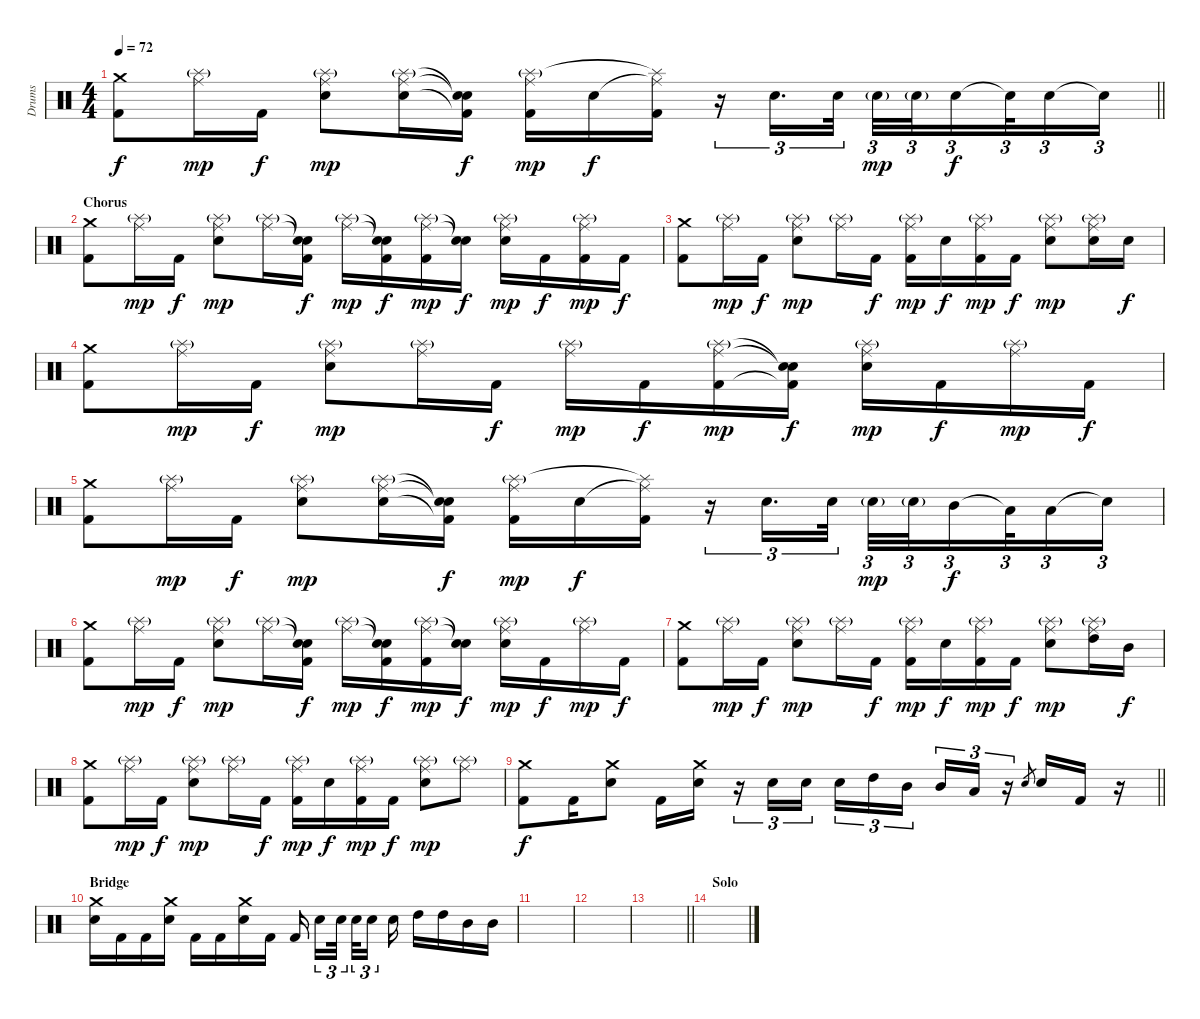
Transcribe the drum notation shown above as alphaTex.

\track ("Drums" "Drums") {instrument percussion}
\staff {score}
\articulation defaults
\ts (4 4)
\tempo 72
\clef neutral
\barLineRight lightlight
\ks c
("Crash medium (hit)" "Kick (hit) 2").8{dy f} ("Ride (middle)" "Splash (hit)"{g}).16{dy mp} "Kick (hit) 2".16{dy f} ("Ride (middle)" "Splash (hit)"{g} "Electric Snare (hit)").8{dy mp} ("Ride (middle)" "Splash (hit)"{g} "Electric Snare (hit)").16 ("Snare (hit)"{t} "Snare (hit)"{t} "Kick (hit) 2"{t}).16{dy f} ("Ride (middle)" "Splash (hit)"{g} "Kick (hit) 2").16{dy mp} "Electric Snare (hit)".16{dy f} ("Ride (middle)"{t} "Splash (hit)"{t} "Kick (hit) 2").16 r.16{tu (3 2)} "Electric Snare (hit)".16{d tu (3 2)} "Electric Snare (hit)".32{tu (3 2)} "Electric Snare (hit)"{g}.32{tu (3 2) dy mp} "Electric Snare (hit)"{g}.32{tu (3 2) beam splitsecondary} "Electric Snare (hit)".16{tu (3 2) dy f} "Snare (hit)"{t}.32{tu (3 2) beam splitsecondary} "Electric Snare (hit)".16{tu (3 2)} "Electric Snare (hit)"{t}.16{tu (3 2)} |
\section ("" "Chorus")
("Crash medium (hit)" "Kick (hit) 2").8 ("Ride (middle)" "Splash (hit)"{g}).16{dy mp} "Kick (hit) 2".16{dy f} ("Ride (middle)" "Splash (hit)"{g} "Electric Snare (hit)").8{dy mp} ("Ride (middle)" "Splash (hit)"{g}).16 ("Snare (hit)"{t} "Snare (hit)"{t} "Kick (hit) 2").16{dy f} ("Ride (middle)" "Splash (hit)"{g}).16{dy mp} ("Snare (hit)"{t} "Snare (hit)"{t} "Kick (hit) 2").16{dy f} ("Ride (middle)" "Splash (hit)"{g} "Kick (hit) 2").16{dy mp} ("Snare (hit)"{t} "Snare (hit)"{t}).16{dy f} ("Ride (middle)" "Splash (hit)"{g} "Electric Snare (hit)").16{dy mp} "Kick (hit) 2".16{dy f} ("Ride (middle)" "Splash (hit)"{g} "Kick (hit) 2").16{dy mp} "Kick (hit) 2".16{dy f} |
("Crash medium (hit)" "Kick (hit) 2").8 ("Ride (middle)" "Splash (hit)"{g}).16{dy mp} "Kick (hit) 2".16{dy f} ("Ride (middle)" "Splash (hit)"{g} "Electric Snare (hit)").8{dy mp} ("Ride (middle)" "Splash (hit)"{g}).16 "Kick (hit) 2".16{dy f} ("Ride (middle)" "Splash (hit)"{g} "Kick (hit) 2").16{dy mp} "Electric Snare (hit)".16{dy f} ("Ride (middle)" "Splash (hit)"{g} "Kick (hit) 2").16{dy mp} "Kick (hit) 2".16{dy f} ("Ride (middle)" "Splash (hit)"{g} "Electric Snare (hit)").8{dy mp} ("Ride (middle)" "Splash (hit)"{g} "Electric Snare (hit)").16 "Electric Snare (hit)".16{dy f} |
("Crash medium (hit)" "Kick (hit) 2").8 ("Ride (middle)" "Splash (hit)"{g}).16{dy mp} "Kick (hit) 2".16{dy f} ("Ride (middle)" "Splash (hit)"{g} "Electric Snare (hit)").8{dy mp} ("Ride (middle)" "Splash (hit)"{g}).16 "Kick (hit) 2".16{dy f} ("Ride (middle)" "Splash (hit)"{g}).16{dy mp} "Kick (hit) 2".16{dy f} ("Ride (middle)" "Splash (hit)"{g} "Kick (hit) 2").16{dy mp} ("Snare (hit)"{t} "Snare (hit)"{t} "Kick (hit) 2"{t}).16{dy f} ("Ride (middle)" "Splash (hit)"{g} "Electric Snare (hit)").16{dy mp} "Kick (hit) 2".16{dy f} ("Ride (middle)" "Splash (hit)"{g}).16{dy mp} "Kick (hit) 2".16{dy f} |
("Crash medium (hit)" "Kick (hit) 2").8 ("Ride (middle)" "Splash (hit)"{g}).16{dy mp} "Kick (hit) 2".16{dy f} ("Ride (middle)" "Splash (hit)"{g} "Electric Snare (hit)").8{dy mp} ("Ride (middle)" "Splash (hit)"{g} "Electric Snare (hit)").16 ("Snare (hit)"{t} "Snare (hit)"{t} "Kick (hit) 2"{t}).16{dy f} ("Ride (middle)" "Splash (hit)"{g} "Kick (hit) 2").16{dy mp} "Electric Snare (hit)".16{dy f} ("Ride (middle)"{t} "Splash (hit)"{t} "Kick (hit) 2").16 r.16{tu (3 2)} "Electric Snare (hit)".16{d tu (3 2)} "Electric Snare (hit)".32{tu (3 2)} "Electric Snare (hit)"{g}.32{tu (3 2) dy mp} "Electric Snare (hit)"{g}.32{tu (3 2) beam splitsecondary} "Mid Tom (hit)".16{tu (3 2) dy f} "Low Tom (hit)"{t}.32{tu (3 2) beam splitsecondary} "Low Tom (hit)".16{tu (3 2)} "Electric Snare (hit)"{t}.16{tu (3 2)} |
("Crash medium (hit)" "Kick (hit) 2").8 ("Ride (middle)" "Splash (hit)"{g}).16{dy mp} "Kick (hit) 2".16{dy f} ("Ride (middle)" "Splash (hit)"{g} "Electric Snare (hit)").8{dy mp} ("Ride (middle)" "Splash (hit)"{g}).16 ("Snare (hit)"{t} "Snare (hit)"{t} "Kick (hit) 2").16{dy f} ("Ride (middle)" "Splash (hit)"{g}).16{dy mp} ("Snare (hit)"{t} "Snare (hit)"{t} "Kick (hit) 2").16{dy f} ("Ride (middle)" "Splash (hit)"{g} "Kick (hit) 2").16{dy mp} ("Snare (hit)"{t} "Snare (hit)"{t}).16{dy f} ("Ride (middle)" "Splash (hit)"{g} "Electric Snare (hit)").16{dy mp} "Kick (hit) 2".16{dy f} ("Ride (middle)" "Splash (hit)"{g}).16{dy mp} "Kick (hit) 2".16{dy f} |
("Crash medium (hit)" "Kick (hit) 2").8 ("Ride (middle)" "Splash (hit)"{g}).16{dy mp} "Kick (hit) 2".16{dy f} ("Ride (middle)" "Splash (hit)"{g} "Electric Snare (hit)").8{dy mp} ("Ride (middle)" "Splash (hit)"{g}).16 "Kick (hit) 2".16{dy f} ("Ride (middle)" "Splash (hit)"{g} "Kick (hit) 2").16{dy mp} "Electric Snare (hit)".16{dy f} ("Ride (middle)" "Splash (hit)"{g} "Kick (hit) 2").16{dy mp} "Kick (hit) 2".16{dy f} ("Ride (middle)" "Splash (hit)"{g} "Electric Snare (hit)").8{dy mp} ("Ride (middle)" "Splash (hit)"{g} "High Tom (hit)").16 "Mid Tom (hit)".16{dy f} |
("Crash medium (hit)" "Kick (hit) 2").8 ("Ride (middle)" "Splash (hit)"{g}).16{dy mp} "Kick (hit) 2".16{dy f} ("Ride (middle)" "Splash (hit)"{g} "Electric Snare (hit)").8{dy mp} ("Ride (middle)" "Splash (hit)"{g}).16 "Kick (hit) 2".16{dy f} ("Ride (middle)" "Splash (hit)"{g} "Kick (hit) 2").16{dy mp} "Electric Snare (hit)".16{dy f} ("Ride (middle)" "Splash (hit)"{g} "Kick (hit) 2").16{dy mp} "Kick (hit) 2".16{dy f} ("Ride (middle)" "Splash (hit)"{g} "Electric Snare (hit)").8{dy mp} ("Ride (middle)" "Splash (hit)"{g}).8 |
\barLineRight lightlight
("Crash medium (hit)" "Kick (hit) 2").8{dy f} "Kick (hit) 2".16 ("Crash medium (hit)" "Electric Snare (hit)").8 "Kick (hit) 2".16 ("Crash medium (hit)" "Electric Snare (hit)").16 r.16{tu (3 2)} "Electric Snare (hit)".16{tu (3 2)} "Electric Snare (hit)".16{tu (3 2) beam splitsecondary} "Electric Snare (hit)".16{tu (3 2)} "High Tom (hit)".16{tu (3 2)} "Mid Tom (hit)".16{tu (3 2) beam splitsecondary} "Mid Tom (hit)".16{tu (3 2)} "Low Tom (hit)".16{tu (3 2)} r.16{tu (3 2)} "Electric Snare (hit)"{h}.8{gr} "Electric Snare (hit)".16 "Kick (hit) 2".16 r.16 |
\section ("" "Bridge")
("Crash medium (hit)" "Electric Snare (hit)").16 "Kick (hit) 2".16 "Kick (hit) 2".16 ("Crash medium (hit)" "Electric Snare (hit)").16 "Kick (hit) 2".16 "Kick (hit) 2".16 ("Crash medium (hit)" "Electric Snare (hit)").16 "Kick (hit) 2".16 "Kick (hit) 2".16{beam splitsecondary} "Electric Snare (hit)".16{tu (3 2)} "Electric Snare (hit)".32{tu (3 2) beam splitsecondary} "Electric Snare (hit)".32{tu (3 2)} "Electric Snare (hit)".16{tu (3 2) beam splitsecondary} "Electric Snare (hit)".16 "High Tom (hit)".16 "High Tom (hit)".16 "Mid Tom (hit)".16 "Mid Tom (hit)".16 |
|
|
\barLineRight lightlight
|
\section ("" "Solo")
